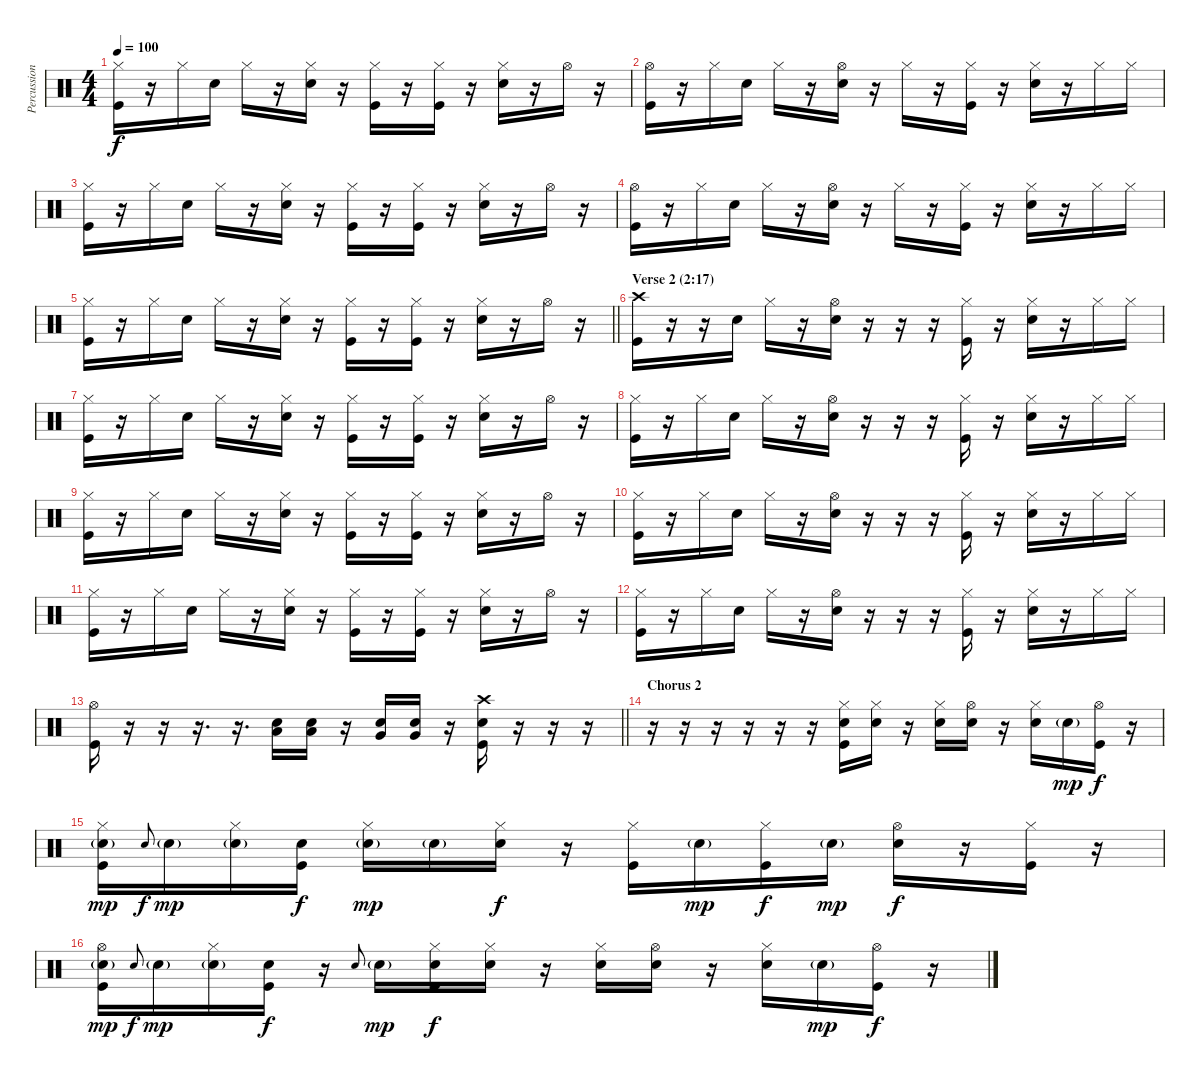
\track ("Percussion" "Percussion") {instrument percussion}
\staff {score}
\articulation defaults
\ts (4 4)
\tempo 100
\clef neutral
\ks c
("Hi-Hat (closed)" "Kick (hit)").16{dy f} r.16 "Hi-Hat (closed)".16 "Snare (hit) 2".16 "Hi-Hat (closed)".16 r.16 ("Hi-Hat (closed)" "Snare (hit) 2").16 r.16 ("Hi-Hat (closed)" "Kick (hit)").16 r.16 ("Hi-Hat (closed)" "Kick (hit)").16 r.16 ("Hi-Hat (closed)" "Snare (hit) 2").16 r.16 "Hi-Hat (open)".16 r.16 |
("Hi-Hat (open)" "Kick (hit)").16 r.16 "Hi-Hat (closed)".16 "Snare (hit) 2".16 "Hi-Hat (closed)".16 r.16 ("Hi-Hat (open)" "Snare (hit) 2").16 r.16 "Hi-Hat (closed)".16 r.16 ("Hi-Hat (closed)" "Kick (hit)").16 r.16 ("Hi-Hat (closed)" "Snare (hit) 2").16 r.16 "Hi-Hat (closed)".16 "Hi-Hat (closed)".16 |
("Hi-Hat (closed)" "Kick (hit)").16 r.16 "Hi-Hat (closed)".16 "Snare (hit) 2".16 "Hi-Hat (closed)".16 r.16 ("Hi-Hat (closed)" "Snare (hit) 2").16 r.16 ("Hi-Hat (closed)" "Kick (hit)").16 r.16 ("Hi-Hat (closed)" "Kick (hit)").16 r.16 ("Hi-Hat (closed)" "Snare (hit) 2").16 r.16 "Hi-Hat (open)".16 r.16 |
("Hi-Hat (open)" "Kick (hit)").16 r.16 "Hi-Hat (closed)".16 "Snare (hit) 2".16 "Hi-Hat (closed)".16 r.16 ("Hi-Hat (open)" "Snare (hit) 2").16 r.16 "Hi-Hat (closed)".16 r.16 ("Hi-Hat (closed)" "Kick (hit)").16 r.16 ("Hi-Hat (closed)" "Snare (hit) 2").16 r.16 "Hi-Hat (closed)".16 "Hi-Hat (closed)".16 |
\barLineRight lightlight
("Hi-Hat (closed)" "Kick (hit)").16 r.16 "Hi-Hat (closed)".16 "Snare (hit) 2".16 "Hi-Hat (closed)".16 r.16 ("Hi-Hat (closed)" "Snare (hit) 2").16 r.16 ("Hi-Hat (closed)" "Kick (hit)").16 r.16 ("Hi-Hat (closed)" "Kick (hit)").16 r.16 ("Hi-Hat (closed)" "Snare (hit) 2").16 r.16 "Hi-Hat (open)".16 r.16 |
\section ("" "Verse 2 (2:17)")
("Crash high (hit)" "Kick (hit)").16 r.16 r.16 "Snare (hit) 2".16 "Hi-Hat (closed)".16 r.16 ("Hi-Hat (open)" "Snare (hit) 2").16 r.16 r.16 r.16 ("Hi-Hat (closed)" "Kick (hit)").16 r.16 ("Hi-Hat (closed)" "Snare (hit) 2").16 r.16 "Hi-Hat (closed)".16 "Hi-Hat (closed)".16 |
("Hi-Hat (closed)" "Kick (hit)").16 r.16 "Hi-Hat (closed)".16 "Snare (hit) 2".16 "Hi-Hat (closed)".16 r.16 ("Hi-Hat (closed)" "Snare (hit) 2").16 r.16 ("Hi-Hat (closed)" "Kick (hit)").16 r.16 ("Hi-Hat (closed)" "Kick (hit)").16 r.16 ("Hi-Hat (closed)" "Snare (hit) 2").16 r.16 "Hi-Hat (open)".16 r.16 |
("Hi-Hat (closed)" "Kick (hit)").16 r.16 "Hi-Hat (closed)".16 "Snare (hit) 2".16 "Hi-Hat (closed)".16 r.16 ("Hi-Hat (open)" "Snare (hit) 2").16 r.16 r.16 r.16 ("Hi-Hat (closed)" "Kick (hit)").16 r.16 ("Hi-Hat (closed)" "Snare (hit) 2").16 r.16 "Hi-Hat (closed)".16 "Hi-Hat (closed)".16 |
("Hi-Hat (closed)" "Kick (hit)").16 r.16 "Hi-Hat (closed)".16 "Snare (hit) 2".16 "Hi-Hat (closed)".16 r.16 ("Hi-Hat (closed)" "Snare (hit) 2").16 r.16 ("Hi-Hat (closed)" "Kick (hit)").16 r.16 ("Hi-Hat (closed)" "Kick (hit)").16 r.16 ("Hi-Hat (closed)" "Snare (hit) 2").16 r.16 "Hi-Hat (open)".16 r.16 |
("Hi-Hat (closed)" "Kick (hit)").16 r.16 "Hi-Hat (closed)".16 "Snare (hit) 2".16 "Hi-Hat (closed)".16 r.16 ("Hi-Hat (open)" "Snare (hit) 2").16 r.16 r.16 r.16 ("Hi-Hat (closed)" "Kick (hit)").16 r.16 ("Hi-Hat (closed)" "Snare (hit) 2").16 r.16 "Hi-Hat (closed)".16 "Hi-Hat (closed)".16 |
("Hi-Hat (closed)" "Kick (hit)").16 r.16 "Hi-Hat (closed)".16 "Snare (hit) 2".16 "Hi-Hat (closed)".16 r.16 ("Hi-Hat (closed)" "Snare (hit) 2").16 r.16 ("Hi-Hat (closed)" "Kick (hit)").16 r.16 ("Hi-Hat (closed)" "Kick (hit)").16 r.16 ("Hi-Hat (closed)" "Snare (hit) 2").16 r.16 "Hi-Hat (open)".16 r.16 |
("Hi-Hat (closed)" "Kick (hit)").16 r.16 "Hi-Hat (closed)".16 "Snare (hit) 2".16 "Hi-Hat (closed)".16 r.16 ("Hi-Hat (open)" "Snare (hit) 2").16 r.16 r.16 r.16 ("Hi-Hat (closed)" "Kick (hit)").16 r.16 ("Hi-Hat (closed)" "Snare (hit) 2").16 r.16 "Hi-Hat (closed)".16 "Hi-Hat (closed)".16 |
\barLineRight lightlight
("Hi-Hat (open)" "Kick (hit)").16 r.16 r.16 r.16{d} r.16{d} ("Low Tom (hit)" "Snare (hit) 2").16 ("Low Tom (hit)" "Snare (hit) 2").16 r.16 ("Very Low Tom (hit)" "Snare (hit) 2").16 ("Very Low Tom (hit)" "Snare (hit) 2").16 r.16 ("Crash high (hit)" "Snare (hit) 2" "Kick (hit)").16 r.16 r.16 r.16 |
\section ("" "Chorus 2")
r.16 r.16 r.16 r.16 r.16 r.16 ("Hi-Hat (closed)" "Snare (hit) 2" "Kick (hit)").16 ("Hi-Hat (closed)" "Snare (hit) 2").16 r.16 ("Hi-Hat (closed)" "Snare (hit) 2").16 ("Hi-Hat (open)" "Snare (hit) 2").16 r.16 ("Hi-Hat (closed)" "Snare (hit) 2").16 "Snare (hit) 2"{g}.16{dy mp} ("Hi-Hat (open)" "Kick (hit)").16{dy f} r.16 |
("Hi-Hat (closed)" "Snare (hit) 2"{g} "Kick (hit)").16{dy mp} "Snare (hit) 2".8{gr onbeat dy f} "Snare (hit) 2"{g}.16{dy mp} ("Hi-Hat (closed)" "Snare (hit) 2"{g}).16 ("Snare (hit) 2" "Kick (hit)").16{dy f} ("Hi-Hat (closed)" "Snare (hit) 2"{g}).16{dy mp} "Snare (hit) 2"{g}.16 ("Hi-Hat (closed)" "Snare (hit) 2").16{dy f} r.16 ("Hi-Hat (closed)" "Kick (hit)").16 "Snare (hit) 2"{g}.16{dy mp} ("Hi-Hat (closed)" "Kick (hit)").16{dy f} "Snare (hit) 2"{g}.16{dy mp} ("Hi-Hat (open)" "Snare (hit) 2").16{dy f} r.16 ("Hi-Hat (closed)" "Kick (hit)").16 r.16 |
("Hi-Hat (open)" "Snare (hit) 2"{g} "Kick (hit)").16{dy mp} "Snare (hit) 2".8{gr onbeat dy f} "Snare (hit) 2"{g}.16{dy mp} ("Hi-Hat (closed)" "Snare (hit) 2"{g}).16 ("Snare (hit) 2" "Kick (hit)").16{dy f} r.16 "Snare (hit) 2".8{gr onbeat} "Snare (hit) 2"{g}.16{dy mp} ("Hi-Hat (closed)" "Snare (hit) 2" "Kick (hit)").16{dy f} ("Hi-Hat (closed)" "Snare (hit) 2").16 r.16 ("Hi-Hat (closed)" "Snare (hit) 2").16 ("Hi-Hat (open)" "Snare (hit) 2").16 r.16 ("Hi-Hat (closed)" "Snare (hit) 2").16 "Snare (hit) 2"{g}.16{dy mp} ("Hi-Hat (open)" "Kick (hit)").16{dy f} r.16
